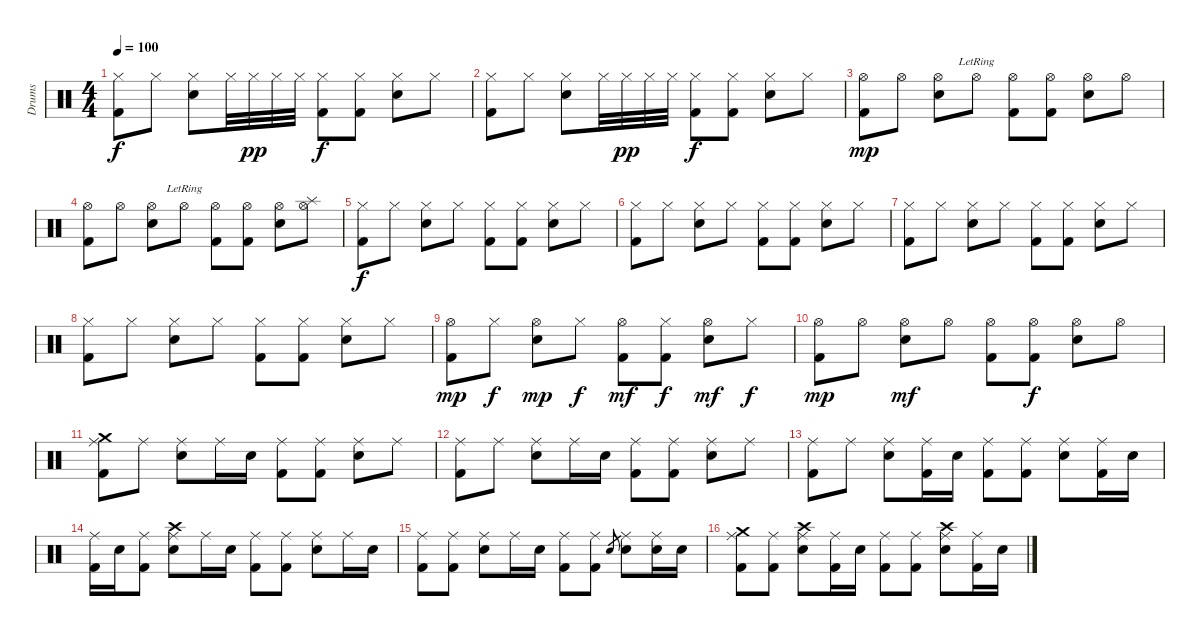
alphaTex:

\track ("Drums" "Drums") {instrument percussion}
\staff {score}
\articulation defaults
\ts (4 4)
\tempo 100
\clef neutral
\ks c
("Hi-Hat (closed)" "Kick (hit) 2").8{dy f} "Hi-Hat (closed)".8 ("Hi-Hat (closed)" "Electric Snare (hit)").8 "Hi-Hat (closed)".32 "Hi-Hat (closed)".32{dy pp} "Hi-Hat (closed)".32 "Hi-Hat (closed)".32 ("Hi-Hat (closed)" "Kick (hit) 2").8{dy f} ("Hi-Hat (closed)" "Kick (hit) 2").8 ("Hi-Hat (closed)" "Electric Snare (hit)").8 "Hi-Hat (closed)".8 |
("Hi-Hat (closed)" "Kick (hit) 2").8 "Hi-Hat (closed)".8 ("Hi-Hat (closed)" "Electric Snare (hit)").8 "Hi-Hat (closed)".32 "Hi-Hat (closed)".32{dy pp} "Hi-Hat (closed)".32 "Hi-Hat (closed)".32 ("Hi-Hat (closed)" "Kick (hit) 2").8{dy f} ("Hi-Hat (closed)" "Kick (hit) 2").8 ("Hi-Hat (closed)" "Electric Snare (hit)").8 "Hi-Hat (closed)".8 |
("Hi-Hat (open)" "Kick (hit) 2").8{dy mp} "Hi-Hat (open)".8 ("Hi-Hat (open)" "Electric Snare (hit)").8 "Hi-Hat (open)"{lr}.8 ("Hi-Hat (open)" "Kick (hit) 2").8 ("Hi-Hat (open)" "Kick (hit) 2").8 ("Hi-Hat (open)" "Electric Snare (hit)").8 "Hi-Hat (open)".8 |
("Hi-Hat (open)" "Kick (hit) 2").8 "Hi-Hat (open)".8 ("Hi-Hat (open)" "Electric Snare (hit)").8 "Hi-Hat (open)"{lr}.8 ("Hi-Hat (open)" "Kick (hit) 2").8 ("Hi-Hat (open)" "Kick (hit) 2").8 ("Hi-Hat (open)" "Electric Snare (hit)").8 ("Splash (hit)" "Hi-Hat (open)").8 |
("Hi-Hat (closed)" "Kick (hit) 2").8{dy f} "Hi-Hat (closed)".8 ("Hi-Hat (closed)" "Electric Snare (hit)").8 "Hi-Hat (closed)".8 ("Hi-Hat (closed)" "Kick (hit) 2").8 ("Hi-Hat (closed)" "Kick (hit) 2").8 ("Hi-Hat (closed)" "Electric Snare (hit)").8 "Hi-Hat (closed)".8 |
("Hi-Hat (closed)" "Kick (hit) 2").8 "Hi-Hat (closed)".8 ("Hi-Hat (closed)" "Electric Snare (hit)").8 "Hi-Hat (closed)".8 ("Hi-Hat (closed)" "Kick (hit) 2").8 ("Hi-Hat (closed)" "Kick (hit) 2").8 ("Hi-Hat (closed)" "Electric Snare (hit)").8 "Hi-Hat (closed)".8 |
("Hi-Hat (closed)" "Kick (hit) 2").8 "Hi-Hat (closed)".8 ("Hi-Hat (closed)" "Electric Snare (hit)").8 "Hi-Hat (closed)".8 ("Hi-Hat (closed)" "Kick (hit) 2").8 ("Hi-Hat (closed)" "Kick (hit) 2").8 ("Hi-Hat (closed)" "Electric Snare (hit)").8 "Hi-Hat (closed)".8 |
("Hi-Hat (closed)" "Kick (hit) 2").8 "Hi-Hat (closed)".8 ("Hi-Hat (closed)" "Electric Snare (hit)").8 "Hi-Hat (closed)".8 ("Hi-Hat (closed)" "Kick (hit) 2").8 ("Hi-Hat (closed)" "Kick (hit) 2").8 ("Hi-Hat (closed)" "Electric Snare (hit)").8 "Hi-Hat (closed)".8 |
("Hi-Hat (open)" "Kick (hit) 2").8{dy mp} "Hi-Hat (closed)".8{dy f} ("Hi-Hat (open)" "Electric Snare (hit)").8{dy mp} "Hi-Hat (closed)".8{dy f} ("Hi-Hat (open)" "Kick (hit) 2").8{dy mf} ("Hi-Hat (closed)" "Kick (hit) 2").8{dy f} ("Hi-Hat (open)" "Electric Snare (hit)").8{dy mf} "Hi-Hat (closed)".8{dy f} |
("Hi-Hat (open)" "Kick (hit) 2").8{dy mp} "Hi-Hat (open)".8 ("Hi-Hat (open)" "Electric Snare (hit)").8{dy mf} "Hi-Hat (open)".8 ("Hi-Hat (open)" "Kick (hit) 2").8 ("Hi-Hat (open)" "Kick (hit) 2").8{dy f} ("Hi-Hat (open)" "Electric Snare (hit)").8 "Hi-Hat (open)".8 |
("Crash medium (hit)" "Ride (middle)" "Kick (hit) 2").8 "Ride (middle)".8 ("Ride (middle)" "Electric Snare (hit)").8 "Ride (middle)".16 "Electric Snare (hit)".16 ("Ride (middle)" "Kick (hit) 2").8 ("Ride (middle)" "Kick (hit) 2").8 ("Ride (middle)" "Electric Snare (hit)").8 "Ride (middle)".8 |
("Ride (middle)" "Kick (hit) 2").8 "Ride (middle)".8 ("Ride (middle)" "Electric Snare (hit)").8 "Ride (middle)".16 "Electric Snare (hit)".16 ("Ride (middle)" "Kick (hit) 2").8 ("Ride (middle)" "Kick (hit) 2").8 ("Ride (middle)" "Electric Snare (hit)").8 "Ride (middle)".8 |
("Ride (middle)" "Kick (hit) 2").8 "Ride (middle)".8 ("Ride (middle)" "Electric Snare (hit)").8 ("Ride (middle)" "Kick (hit) 2").16 "Electric Snare (hit)".16 ("Ride (middle)" "Kick (hit) 2").8 ("Ride (middle)" "Kick (hit) 2").8 ("Ride (middle)" "Electric Snare (hit)").8 ("Ride (middle)" "Kick (hit) 2").16 "Electric Snare (hit)".16 |
("Ride (middle)" "Kick (hit) 2").16 "Electric Snare (hit)".16 ("Ride (middle)" "Kick (hit) 2").8 ("Crash high (hit)" "Ride (middle)" "Electric Snare (hit)").8 "Ride (middle)".16 "Electric Snare (hit)".16 ("Ride (middle)" "Kick (hit) 2").8 ("Ride (middle)" "Kick (hit) 2").8 ("Ride (middle)" "Electric Snare (hit)").8 "Ride (middle)".16 "Electric Snare (hit)".16 |
("Ride (middle)" "Kick (hit) 2").8 ("Ride (middle)" "Kick (hit) 2").8 ("Ride (middle)" "Electric Snare (hit)").8 "Ride (middle)".16 "Electric Snare (hit)".16 ("Ride (middle)" "Kick (hit) 2").8 ("Ride (middle)" "Kick (hit) 2").8 "Electric Snare (hit)".8{gr} ("Ride (middle)" "Electric Snare (hit)").8 ("Ride (middle)" "Electric Snare (hit)").16 "Electric Snare (hit)".16 |
("Crash medium (hit)" "Ride (middle)" "Kick (hit) 2").8 ("Ride (middle)" "Kick (hit) 2").8 ("Crash high (hit)" "Ride (middle)" "Electric Snare (hit)").8 ("Ride (middle)" "Kick (hit) 2").16 "Electric Snare (hit)".16 ("Ride (middle)" "Kick (hit) 2").8 ("Ride (middle)" "Kick (hit) 2").8 ("Crash high (hit)" "Ride (middle)" "Electric Snare (hit)").8 ("Ride (middle)" "Kick (hit) 2").16 "Electric Snare (hit)".16
